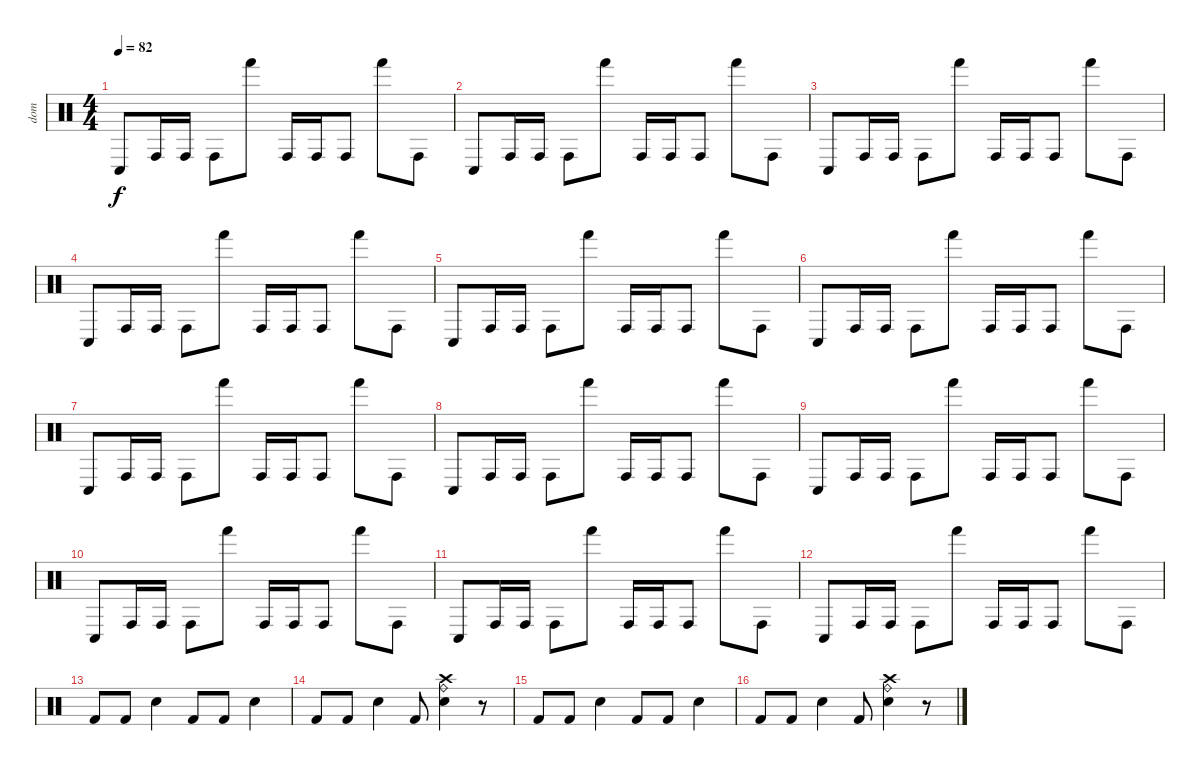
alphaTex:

\track ("dom" "dom") {instrument percussion}
\staff {score}
\articulation defaults
\ts (4 4)
\tempo 82
\clef neutral
\ks c "Conga low (hit)".8{dy f} "Conga high (hit)".16 "Conga high (hit)".16 "Conga high (hit)".8 "Hand (hit)".8 "Conga high (hit)".16 "Conga high (hit)".16 "Conga high (hit)".8 "Hand (hit)".8 "Conga high (hit)".8
|
"Conga low (hit)".8 "Conga high (hit)".16 "Conga high (hit)".16 "Conga high (hit)".8 "Hand (hit)".8 "Conga high (hit)".16 "Conga high (hit)".16 "Conga high (hit)".8 "Hand (hit)".8 "Conga high (hit)".8 |
"Conga low (hit)".8 "Conga high (hit)".16 "Conga high (hit)".16 "Conga high (hit)".8 "Hand (hit)".8 "Conga high (hit)".16 "Conga high (hit)".16 "Conga high (hit)".8 "Hand (hit)".8 "Conga high (hit)".8 |
"Conga low (hit)".8 "Conga high (hit)".16 "Conga high (hit)".16 "Conga high (hit)".8 "Hand (hit)".8 "Conga high (hit)".16 "Conga high (hit)".16 "Conga high (hit)".8 "Hand (hit)".8 "Conga high (hit)".8 |
"Conga low (hit)".8 "Conga high (hit)".16 "Conga high (hit)".16 "Conga high (hit)".8 "Hand (hit)".8 "Conga high (hit)".16 "Conga high (hit)".16 "Conga high (hit)".8 "Hand (hit)".8 "Conga high (hit)".8 |
"Conga low (hit)".8 "Conga high (hit)".16 "Conga high (hit)".16 "Conga high (hit)".8 "Hand (hit)".8 "Conga high (hit)".16 "Conga high (hit)".16 "Conga high (hit)".8 "Hand (hit)".8 "Conga high (hit)".8 |
"Conga low (hit)".8 "Conga high (hit)".16 "Conga high (hit)".16 "Conga high (hit)".8 "Hand (hit)".8 "Conga high (hit)".16 "Conga high (hit)".16 "Conga high (hit)".8 "Hand (hit)".8 "Conga high (hit)".8 |
"Conga low (hit)".8 "Conga high (hit)".16 "Conga high (hit)".16 "Conga high (hit)".8 "Hand (hit)".8 "Conga high (hit)".16 "Conga high (hit)".16 "Conga high (hit)".8 "Hand (hit)".8 "Conga high (hit)".8 |
"Conga low (hit)".8 "Conga high (hit)".16 "Conga high (hit)".16 "Conga high (hit)".8 "Hand (hit)".8 "Conga high (hit)".16 "Conga high (hit)".16 "Conga high (hit)".8 "Hand (hit)".8 "Conga high (hit)".8 |
"Conga low (hit)".8 "Conga high (hit)".16 "Conga high (hit)".16 "Conga high (hit)".8 "Hand (hit)".8 "Conga high (hit)".16 "Conga high (hit)".16 "Conga high (hit)".8 "Hand (hit)".8 "Conga high (hit)".8 |
"Conga low (hit)".8 "Conga high (hit)".16 "Conga high (hit)".16 "Conga high (hit)".8 "Hand (hit)".8 "Conga high (hit)".16 "Conga high (hit)".16 "Conga high (hit)".8 "Hand (hit)".8 "Conga high (hit)".8 |
"Conga low (hit)".8 "Conga high (hit)".16 "Conga high (hit)".16 "Conga high (hit)".8 "Hand (hit)".8 "Conga high (hit)".16 "Conga high (hit)".16 "Conga high (hit)".8 "Hand (hit)".8 "Conga high (hit)".8 |
"Kick (hit) 2".8 "Kick (hit) 2".8 "Electric Snare (hit)".4 "Kick (hit) 2".8 "Kick (hit) 2".8 "Electric Snare (hit)".4 |
"Kick (hit) 2".8 "Kick (hit) 2".8 "Electric Snare (hit)".4 "Kick (hit) 2".8 ("Crash high (hit)" "Ride (bell)" "Electric Snare (hit)").4 r.8 |
"Kick (hit) 2".8 "Kick (hit) 2".8 "Electric Snare (hit)".4 "Kick (hit) 2".8 "Kick (hit) 2".8 "Electric Snare (hit)".4 |
"Kick (hit) 2".8 "Kick (hit) 2".8 "Electric Snare (hit)".4 "Kick (hit) 2".8 ("Crash high (hit)" "Ride (bell)" "Electric Snare (hit)").4 r.8
